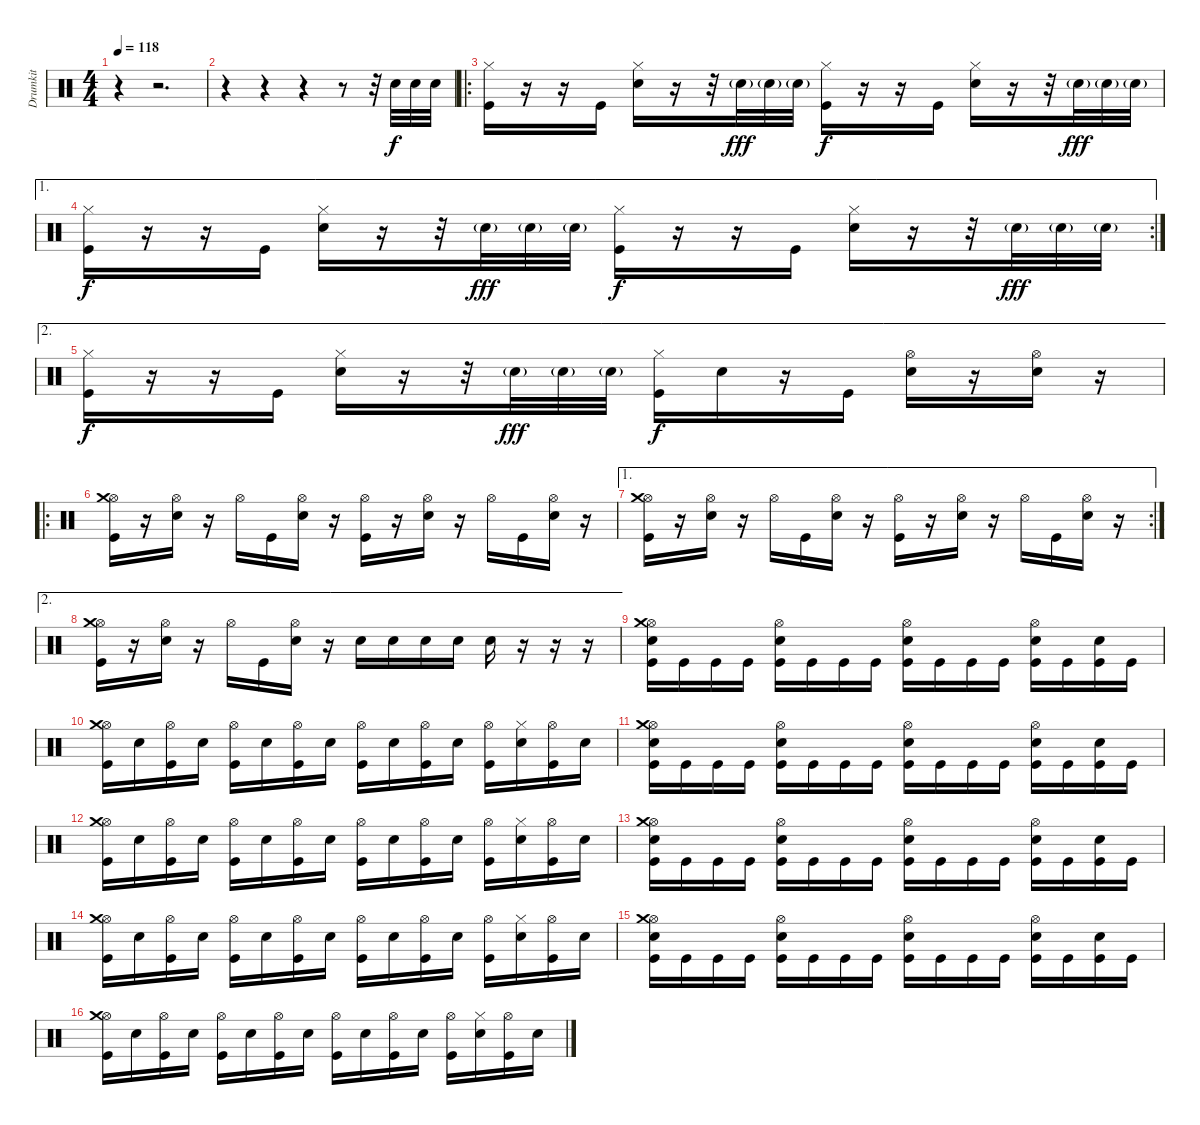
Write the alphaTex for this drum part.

\track ("Drumkit" "Drumkit") {instrument percussion}
\staff {score}
\articulation defaults
\ts (4 4)
\tempo 118
\clef neutral
\ks c
r.4{dy f} r.2{d} |
r.4 r.4 r.4 r.8 r.32 "Snare (hit) 2".32 "Snare (hit) 2".32 "Snare (hit) 2".32 |
\ro
("Hi-Hat (closed)" "Kick (hit)").16 r.16 r.16 "Kick (hit)".16 ("Hi-Hat (closed)" "Snare (hit) 2").16 r.16 r.32 "Snare (hit) 2"{g}.32{dy fff} "Snare (hit) 2"{g}.32 "Snare (hit) 2"{g}.32 ("Hi-Hat (closed)" "Kick (hit)").16{dy f} r.16 r.16 "Kick (hit)".16 ("Hi-Hat (closed)" "Snare (hit) 2").16 r.16 r.32 "Snare (hit) 2"{g}.32{dy fff} "Snare (hit) 2"{g}.32 "Snare (hit) 2"{g}.32 |
\ae 1
\rc 2
("Hi-Hat (closed)" "Kick (hit)").16{dy f} r.16 r.16 "Kick (hit)".16 ("Hi-Hat (closed)" "Snare (hit) 2").16 r.16 r.32 "Snare (hit) 2"{g}.32{dy fff} "Snare (hit) 2"{g}.32 "Snare (hit) 2"{g}.32 ("Hi-Hat (closed)" "Kick (hit)").16{dy f} r.16 r.16 "Kick (hit)".16 ("Hi-Hat (closed)" "Snare (hit) 2").16 r.16 r.32 "Snare (hit) 2"{g}.32{dy fff} "Snare (hit) 2"{g}.32 "Snare (hit) 2"{g}.32 |
\ae 2
("Hi-Hat (closed)" "Kick (hit)").16{dy f} r.16 r.16 "Kick (hit)".16 ("Hi-Hat (closed)" "Snare (hit) 2").16 r.16 r.32 "Snare (hit) 2"{g}.32{dy fff} "Snare (hit) 2"{g}.32 "Snare (hit) 2"{g}.32 ("Hi-Hat (closed)" "Kick (hit)").16{dy f} "Snare (hit) 2".16 r.16 "Kick (hit)".16 ("Hi-Hat (open)" "Snare (hit) 2").16 r.16 ("Hi-Hat (open)" "Snare (hit) 2").16 r.16 |
\ro
("Hi-Hat (open)" "Kick (hit)" "Crash medium (hit)").16 r.16 ("Hi-Hat (open)" "Snare (hit) 2").16 r.16 "Hi-Hat (open)".16 "Kick (hit)".16 ("Hi-Hat (open)" "Snare (hit) 2").16 r.16 ("Hi-Hat (open)" "Kick (hit)").16 r.16 ("Hi-Hat (open)" "Snare (hit) 2").16 r.16 "Hi-Hat (open)".16 "Kick (hit)".16 ("Hi-Hat (open)" "Snare (hit) 2").16 r.16 |
\ae 1
\rc 2
("Hi-Hat (open)" "Kick (hit)" "Crash medium (hit)").16 r.16 ("Hi-Hat (open)" "Snare (hit) 2").16 r.16 "Hi-Hat (open)".16 "Kick (hit)".16 ("Hi-Hat (open)" "Snare (hit) 2").16 r.16 ("Hi-Hat (open)" "Kick (hit)").16 r.16 ("Hi-Hat (open)" "Snare (hit) 2").16 r.16 "Hi-Hat (open)".16 "Kick (hit)".16 ("Hi-Hat (open)" "Snare (hit) 2").16 r.16 |
\ae 2
("Hi-Hat (open)" "Kick (hit)" "Crash medium (hit)").16 r.16 ("Hi-Hat (open)" "Snare (hit) 2").16 r.16 "Hi-Hat (open)".16 "Kick (hit)".16 ("Hi-Hat (open)" "Snare (hit) 2").16 r.16 "Snare (hit) 2".16 "Snare (hit) 2".16 "Snare (hit) 2".16 "Snare (hit) 2".16 "Snare (hit) 2".16 r.16 r.16 r.16 |
("Kick (hit)" "Hi-Hat (open)" "Snare (hit) 2" "Crash medium (hit)").16 "Kick (hit)".16 "Kick (hit)".16 "Kick (hit)".16 ("Kick (hit)" "Snare (hit) 2" "Hi-Hat (open)").16 "Kick (hit)".16 "Kick (hit)".16 "Kick (hit)".16 ("Kick (hit)" "Hi-Hat (open)" "Snare (hit) 2").16 "Kick (hit)".16 "Kick (hit)".16 "Kick (hit)".16 ("Kick (hit)" "Snare (hit) 2" "Hi-Hat (open)").16 "Kick (hit)".16 ("Kick (hit)" "Snare (hit) 2").16 "Kick (hit)".16 |
("Hi-Hat (open)" "Kick (hit)" "Crash medium (hit)").16 "Snare (hit) 2".16 ("Hi-Hat (open)" "Kick (hit)").16 "Snare (hit) 2".16 ("Hi-Hat (open)" "Kick (hit)").16 "Snare (hit) 2".16 ("Hi-Hat (open)" "Kick (hit)").16 "Snare (hit) 2".16 ("Hi-Hat (open)" "Kick (hit)").16 "Snare (hit) 2".16 ("Hi-Hat (open)" "Kick (hit)").16 "Snare (hit) 2".16 ("Hi-Hat (open)" "Kick (hit)").16 ("Hi-Hat (closed)" "Snare (hit) 2").16 ("Hi-Hat (open)" "Kick (hit)").16 "Snare (hit) 2".16 |
("Kick (hit)" "Hi-Hat (open)" "Snare (hit) 2" "Crash medium (hit)").16 "Kick (hit)".16 "Kick (hit)".16 "Kick (hit)".16 ("Kick (hit)" "Snare (hit) 2" "Hi-Hat (open)").16 "Kick (hit)".16 "Kick (hit)".16 "Kick (hit)".16 ("Kick (hit)" "Hi-Hat (open)" "Snare (hit) 2").16 "Kick (hit)".16 "Kick (hit)".16 "Kick (hit)".16 ("Kick (hit)" "Snare (hit) 2" "Hi-Hat (open)").16 "Kick (hit)".16 ("Kick (hit)" "Snare (hit) 2").16 "Kick (hit)".16 |
("Hi-Hat (open)" "Kick (hit)" "Crash medium (hit)").16 "Snare (hit) 2".16 ("Hi-Hat (open)" "Kick (hit)").16 "Snare (hit) 2".16 ("Hi-Hat (open)" "Kick (hit)").16 "Snare (hit) 2".16 ("Hi-Hat (open)" "Kick (hit)").16 "Snare (hit) 2".16 ("Hi-Hat (open)" "Kick (hit)").16 "Snare (hit) 2".16 ("Hi-Hat (open)" "Kick (hit)").16 "Snare (hit) 2".16 ("Hi-Hat (open)" "Kick (hit)").16 ("Hi-Hat (closed)" "Snare (hit) 2").16 ("Hi-Hat (open)" "Kick (hit)").16 "Snare (hit) 2".16 |
("Kick (hit)" "Hi-Hat (open)" "Snare (hit) 2" "Crash medium (hit)").16 "Kick (hit)".16 "Kick (hit)".16 "Kick (hit)".16 ("Kick (hit)" "Snare (hit) 2" "Hi-Hat (open)").16 "Kick (hit)".16 "Kick (hit)".16 "Kick (hit)".16 ("Kick (hit)" "Hi-Hat (open)" "Snare (hit) 2").16 "Kick (hit)".16 "Kick (hit)".16 "Kick (hit)".16 ("Kick (hit)" "Snare (hit) 2" "Hi-Hat (open)").16 "Kick (hit)".16 ("Kick (hit)" "Snare (hit) 2").16 "Kick (hit)".16 |
("Hi-Hat (open)" "Kick (hit)" "Crash medium (hit)").16 "Snare (hit) 2".16 ("Hi-Hat (open)" "Kick (hit)").16 "Snare (hit) 2".16 ("Hi-Hat (open)" "Kick (hit)").16 "Snare (hit) 2".16 ("Hi-Hat (open)" "Kick (hit)").16 "Snare (hit) 2".16 ("Hi-Hat (open)" "Kick (hit)").16 "Snare (hit) 2".16 ("Hi-Hat (open)" "Kick (hit)").16 "Snare (hit) 2".16 ("Hi-Hat (open)" "Kick (hit)").16 ("Hi-Hat (closed)" "Snare (hit) 2").16 ("Hi-Hat (open)" "Kick (hit)").16 "Snare (hit) 2".16 |
("Kick (hit)" "Hi-Hat (open)" "Snare (hit) 2" "Crash medium (hit)").16 "Kick (hit)".16 "Kick (hit)".16 "Kick (hit)".16 ("Kick (hit)" "Snare (hit) 2" "Hi-Hat (open)").16 "Kick (hit)".16 "Kick (hit)".16 "Kick (hit)".16 ("Kick (hit)" "Hi-Hat (open)" "Snare (hit) 2").16 "Kick (hit)".16 "Kick (hit)".16 "Kick (hit)".16 ("Kick (hit)" "Snare (hit) 2" "Hi-Hat (open)").16 "Kick (hit)".16 ("Kick (hit)" "Snare (hit) 2").16 "Kick (hit)".16 |
("Hi-Hat (open)" "Kick (hit)" "Crash medium (hit)").16 "Snare (hit) 2".16 ("Hi-Hat (open)" "Kick (hit)").16 "Snare (hit) 2".16 ("Hi-Hat (open)" "Kick (hit)").16 "Snare (hit) 2".16 ("Hi-Hat (open)" "Kick (hit)").16 "Snare (hit) 2".16 ("Hi-Hat (open)" "Kick (hit)").16 "Snare (hit) 2".16 ("Hi-Hat (open)" "Kick (hit)").16 "Snare (hit) 2".16 ("Hi-Hat (open)" "Kick (hit)").16 ("Hi-Hat (closed)" "Snare (hit) 2").16 ("Hi-Hat (open)" "Kick (hit)").16 "Snare (hit) 2".16
